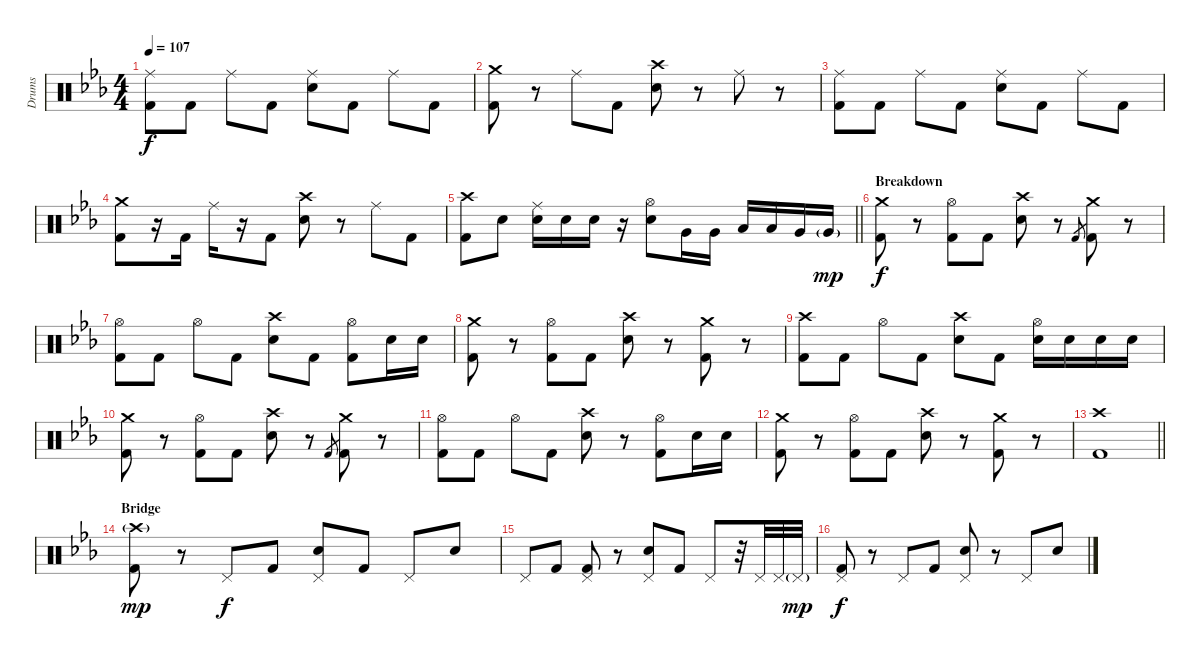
\track ("Drums" "Drums") {instrument percussion}
\staff {score}
\articulation defaults
\ts (4 4)
\tempo 107
\clef neutral
\ks cminor
("Ride (middle)" "Kick (hit) 2").8{dy f} "Kick (hit) 2".8 "Ride (middle)".8 "Kick (hit) 2".8 ("Ride (middle)" "Electric Snare (hit)").8 "Kick (hit) 2".8 "Ride (middle)".8 "Kick (hit) 2".8 |
("Crash medium (hit)" "Kick (hit) 2").8 r.8 "Ride (middle)".8 "Kick (hit) 2".8 ("Crash high (hit)" "Electric Snare (hit)").8 r.8 "Ride (middle)".8 r.8 |
("Ride (middle)" "Kick (hit) 2").8 "Kick (hit) 2".8 "Ride (middle)".8 "Kick (hit) 2".8 ("Ride (middle)" "Electric Snare (hit)").8 "Kick (hit) 2".8 "Ride (middle)".8 "Kick (hit) 2".8 |
("Crash medium (hit)" "Kick (hit) 2").8 r.16 "Kick (hit) 2".16 "Ride (middle)".16 r.16 "Kick (hit) 2".8 ("Crash high (hit)" "Electric Snare (hit)").8 r.8 "Ride (middle)".8 "Kick (hit) 2".8 |
\barLineRight lightlight
("Crash high (hit)" "Kick (hit) 2").8 "Electric Snare (hit)".8 ("Ride (middle)" "Electric Snare (hit)").16 "Electric Snare (hit)".16 "Electric Snare (hit)".16 r.16 ("Hi-Hat (open)" "Electric Snare (hit)").8 "Very Low Tom (hit)".16 "Very Low Tom (hit)".16 "Low Tom (hit)".16 "Low Tom (hit)".16 "Very Low Tom (hit)".16 "Very Low Tom (hit)"{g}.16{dy mp} |
\section ("" "Breakdown")
("Crash medium (hit)" "Kick (hit) 2").8{dy f} r.8 ("Hi-Hat (open)" "Kick (hit) 2").8 "Kick (hit) 2".8 ("Crash high (hit)" "Electric Snare (hit)").8 r.8 "Kick (hit) 2".8{gr} ("Crash medium (hit)" "Kick (hit) 2").8 r.8 |
("Hi-Hat (open)" "Kick (hit) 2").8 "Kick (hit) 2".8 "Hi-Hat (open)".8 "Kick (hit) 2".8 ("Crash high (hit)" "Electric Snare (hit)").8 "Kick (hit) 2".8 ("Hi-Hat (open)" "Kick (hit) 2").8 "Electric Snare (hit)".16 "Electric Snare (hit)".16 |
("Crash medium (hit)" "Kick (hit) 2").8 r.8 ("Hi-Hat (open)" "Kick (hit) 2").8 "Kick (hit) 2".8 ("Crash high (hit)" "Electric Snare (hit)").8 r.8 ("Crash medium (hit)" "Kick (hit) 2").8 r.8 |
("Crash high (hit)" "Kick (hit) 2").8 "Kick (hit) 2".8 "Hi-Hat (open)".8 "Kick (hit) 2".8 ("Crash high (hit)" "Electric Snare (hit)").8 "Kick (hit) 2".8 ("Hi-Hat (open)" "Electric Snare (hit)").16 "Electric Snare (hit)".16 "Electric Snare (hit)".16 "Electric Snare (hit)".16 |
("Crash medium (hit)" "Kick (hit) 2").8 r.8 ("Hi-Hat (open)" "Kick (hit) 2").8 "Kick (hit) 2".8 ("Crash high (hit)" "Electric Snare (hit)").8 r.8 "Kick (hit) 2".8{gr} ("Crash medium (hit)" "Kick (hit) 2").8 r.8 |
("Hi-Hat (open)" "Kick (hit) 2").8 "Kick (hit) 2".8 "Hi-Hat (open)".8 "Kick (hit) 2".8 ("Crash high (hit)" "Electric Snare (hit)").8 r.8 ("Hi-Hat (open)" "Kick (hit) 2").8 "Electric Snare (hit)".16 "Electric Snare (hit)".16 |
("Crash medium (hit)" "Kick (hit) 2").8 r.8 ("Hi-Hat (open)" "Kick (hit) 2").8 "Kick (hit) 2".8 ("Crash high (hit)" "Electric Snare (hit)").8 r.8 ("Crash medium (hit)" "Kick (hit) 2").8 r.8 |
\barLineRight lightlight
("Crash high (hit)" "Kick (hit) 2").1 |
\section ("" "Bridge")
("Crash high (hit)"{g} "Kick (hit) 2").8{dy mp} r.8 "Pedal Hi-Hat (hit)".8{dy f} "Kick (hit) 2".8 ("Pedal Hi-Hat (hit)" "Electric Snare (hit)").8 "Kick (hit) 2".8 "Pedal Hi-Hat (hit)".8 "Electric Snare (hit)".8 |
"Pedal Hi-Hat (hit)".8 "Kick (hit) 2".8 ("Pedal Hi-Hat (hit)" "Kick (hit) 2").8 r.8 ("Pedal Hi-Hat (hit)" "Electric Snare (hit)").8 "Kick (hit) 2".8 "Pedal Hi-Hat (hit)".8 r.32 "Pedal Hi-Hat (hit)".32 "Pedal Hi-Hat (hit)".32 "Pedal Hi-Hat (hit)"{g}.32{dy mp} |
("Pedal Hi-Hat (hit)" "Kick (hit) 2").8{dy f} r.8 "Pedal Hi-Hat (hit)".8 "Kick (hit) 2".8 ("Pedal Hi-Hat (hit)" "Electric Snare (hit)").8 r.8 "Pedal Hi-Hat (hit)".8 "Electric Snare (hit)".8
